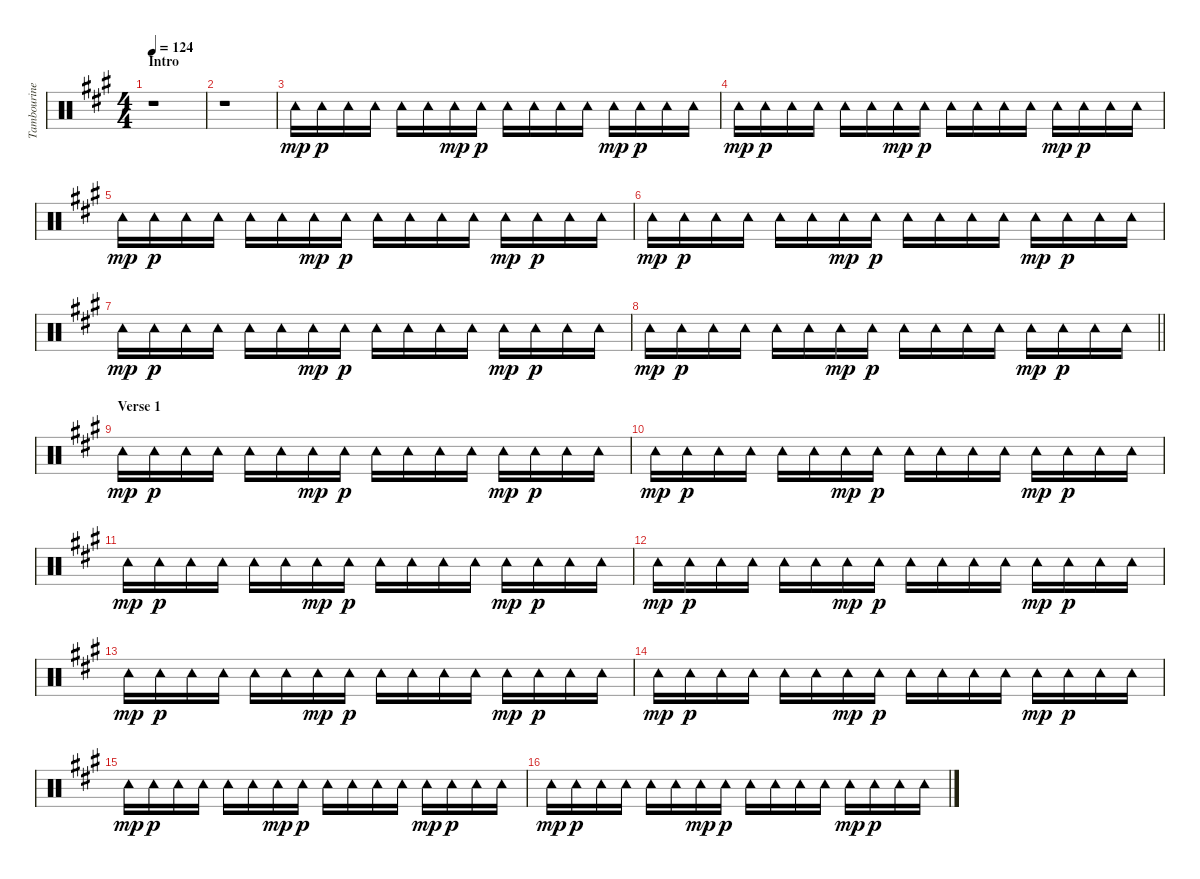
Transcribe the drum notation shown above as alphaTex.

\track ("Tambourine" "Tambourine") {instrument percussion}
\staff {score}
\articulation defaults
\ts (4 4)
\section ("" "Intro")
\tempo 124
\clef neutral
\ks a
r.1{dy mp} |
r.1 |
"Tambourine (hit)".16 "Tambourine (hit)".16{dy p} "Tambourine (hit)".16 "Tambourine (hit)".16 "Tambourine (hit)".16 "Tambourine (hit)".16 "Tambourine (hit)".16{dy mp} "Tambourine (hit)".16{dy p} "Tambourine (hit)".16 "Tambourine (hit)".16 "Tambourine (hit)".16 "Tambourine (hit)".16 "Tambourine (hit)".16{dy mp} "Tambourine (hit)".16{dy p} "Tambourine (hit)".16 "Tambourine (hit)".16 |
"Tambourine (hit)".16{dy mp} "Tambourine (hit)".16{dy p} "Tambourine (hit)".16 "Tambourine (hit)".16 "Tambourine (hit)".16 "Tambourine (hit)".16 "Tambourine (hit)".16{dy mp} "Tambourine (hit)".16{dy p} "Tambourine (hit)".16 "Tambourine (hit)".16 "Tambourine (hit)".16 "Tambourine (hit)".16 "Tambourine (hit)".16{dy mp} "Tambourine (hit)".16{dy p} "Tambourine (hit)".16 "Tambourine (hit)".16 |
"Tambourine (hit)".16{dy mp} "Tambourine (hit)".16{dy p} "Tambourine (hit)".16 "Tambourine (hit)".16 "Tambourine (hit)".16 "Tambourine (hit)".16 "Tambourine (hit)".16{dy mp} "Tambourine (hit)".16{dy p} "Tambourine (hit)".16 "Tambourine (hit)".16 "Tambourine (hit)".16 "Tambourine (hit)".16 "Tambourine (hit)".16{dy mp} "Tambourine (hit)".16{dy p} "Tambourine (hit)".16 "Tambourine (hit)".16 |
"Tambourine (hit)".16{dy mp} "Tambourine (hit)".16{dy p} "Tambourine (hit)".16 "Tambourine (hit)".16 "Tambourine (hit)".16 "Tambourine (hit)".16 "Tambourine (hit)".16{dy mp} "Tambourine (hit)".16{dy p} "Tambourine (hit)".16 "Tambourine (hit)".16 "Tambourine (hit)".16 "Tambourine (hit)".16 "Tambourine (hit)".16{dy mp} "Tambourine (hit)".16{dy p} "Tambourine (hit)".16 "Tambourine (hit)".16 |
"Tambourine (hit)".16{dy mp} "Tambourine (hit)".16{dy p} "Tambourine (hit)".16 "Tambourine (hit)".16 "Tambourine (hit)".16 "Tambourine (hit)".16 "Tambourine (hit)".16{dy mp} "Tambourine (hit)".16{dy p} "Tambourine (hit)".16 "Tambourine (hit)".16 "Tambourine (hit)".16 "Tambourine (hit)".16 "Tambourine (hit)".16{dy mp} "Tambourine (hit)".16{dy p} "Tambourine (hit)".16 "Tambourine (hit)".16 |
\barLineRight lightlight "Tambourine (hit)".16{dy mp} "Tambourine (hit)".16{dy p} "Tambourine (hit)".16 "Tambourine (hit)".16 "Tambourine (hit)".16 "Tambourine (hit)".16 "Tambourine (hit)".16{dy mp} "Tambourine (hit)".16{dy p} "Tambourine (hit)".16 "Tambourine (hit)".16 "Tambourine (hit)".16 "Tambourine (hit)".16 "Tambourine (hit)".16{dy mp} "Tambourine (hit)".16{dy p} "Tambourine (hit)".16 "Tambourine (hit)".16
|
\section ("" "Verse 1")
"Tambourine (hit)".16{dy mp} "Tambourine (hit)".16{dy p} "Tambourine (hit)".16 "Tambourine (hit)".16 "Tambourine (hit)".16 "Tambourine (hit)".16 "Tambourine (hit)".16{dy mp} "Tambourine (hit)".16{dy p} "Tambourine (hit)".16 "Tambourine (hit)".16 "Tambourine (hit)".16 "Tambourine (hit)".16 "Tambourine (hit)".16{dy mp} "Tambourine (hit)".16{dy p} "Tambourine (hit)".16 "Tambourine (hit)".16 |
"Tambourine (hit)".16{dy mp} "Tambourine (hit)".16{dy p} "Tambourine (hit)".16 "Tambourine (hit)".16 "Tambourine (hit)".16 "Tambourine (hit)".16 "Tambourine (hit)".16{dy mp} "Tambourine (hit)".16{dy p} "Tambourine (hit)".16 "Tambourine (hit)".16 "Tambourine (hit)".16 "Tambourine (hit)".16 "Tambourine (hit)".16{dy mp} "Tambourine (hit)".16{dy p} "Tambourine (hit)".16 "Tambourine (hit)".16 |
"Tambourine (hit)".16{dy mp} "Tambourine (hit)".16{dy p} "Tambourine (hit)".16 "Tambourine (hit)".16 "Tambourine (hit)".16 "Tambourine (hit)".16 "Tambourine (hit)".16{dy mp} "Tambourine (hit)".16{dy p} "Tambourine (hit)".16 "Tambourine (hit)".16 "Tambourine (hit)".16 "Tambourine (hit)".16 "Tambourine (hit)".16{dy mp} "Tambourine (hit)".16{dy p} "Tambourine (hit)".16 "Tambourine (hit)".16 |
"Tambourine (hit)".16{dy mp} "Tambourine (hit)".16{dy p} "Tambourine (hit)".16 "Tambourine (hit)".16 "Tambourine (hit)".16 "Tambourine (hit)".16 "Tambourine (hit)".16{dy mp} "Tambourine (hit)".16{dy p} "Tambourine (hit)".16 "Tambourine (hit)".16 "Tambourine (hit)".16 "Tambourine (hit)".16 "Tambourine (hit)".16{dy mp} "Tambourine (hit)".16{dy p} "Tambourine (hit)".16 "Tambourine (hit)".16 |
"Tambourine (hit)".16{dy mp} "Tambourine (hit)".16{dy p} "Tambourine (hit)".16 "Tambourine (hit)".16 "Tambourine (hit)".16 "Tambourine (hit)".16 "Tambourine (hit)".16{dy mp} "Tambourine (hit)".16{dy p} "Tambourine (hit)".16 "Tambourine (hit)".16 "Tambourine (hit)".16 "Tambourine (hit)".16 "Tambourine (hit)".16{dy mp} "Tambourine (hit)".16{dy p} "Tambourine (hit)".16 "Tambourine (hit)".16 |
"Tambourine (hit)".16{dy mp} "Tambourine (hit)".16{dy p} "Tambourine (hit)".16 "Tambourine (hit)".16 "Tambourine (hit)".16 "Tambourine (hit)".16 "Tambourine (hit)".16{dy mp} "Tambourine (hit)".16{dy p} "Tambourine (hit)".16 "Tambourine (hit)".16 "Tambourine (hit)".16 "Tambourine (hit)".16 "Tambourine (hit)".16{dy mp} "Tambourine (hit)".16{dy p} "Tambourine (hit)".16 "Tambourine (hit)".16 |
"Tambourine (hit)".16{dy mp} "Tambourine (hit)".16{dy p} "Tambourine (hit)".16 "Tambourine (hit)".16 "Tambourine (hit)".16 "Tambourine (hit)".16 "Tambourine (hit)".16{dy mp} "Tambourine (hit)".16{dy p} "Tambourine (hit)".16 "Tambourine (hit)".16 "Tambourine (hit)".16 "Tambourine (hit)".16 "Tambourine (hit)".16{dy mp} "Tambourine (hit)".16{dy p} "Tambourine (hit)".16 "Tambourine (hit)".16 |
"Tambourine (hit)".16{dy mp} "Tambourine (hit)".16{dy p} "Tambourine (hit)".16 "Tambourine (hit)".16 "Tambourine (hit)".16 "Tambourine (hit)".16 "Tambourine (hit)".16{dy mp} "Tambourine (hit)".16{dy p} "Tambourine (hit)".16 "Tambourine (hit)".16 "Tambourine (hit)".16 "Tambourine (hit)".16 "Tambourine (hit)".16{dy mp} "Tambourine (hit)".16{dy p} "Tambourine (hit)".16 "Tambourine (hit)".16
